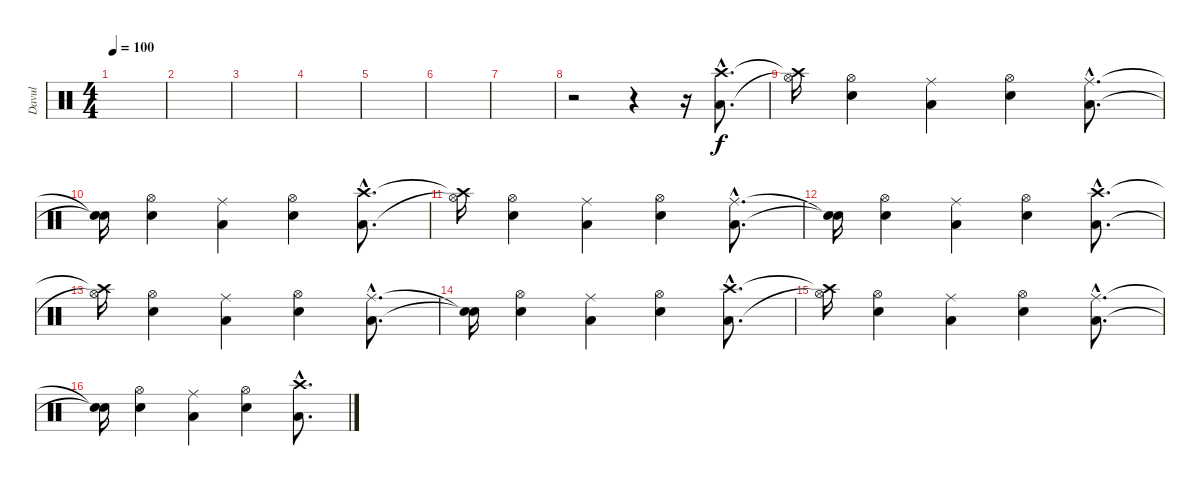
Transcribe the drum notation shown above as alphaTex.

\track ("Davul" "Davul") {instrument percussion}
\staff {score}
\articulation defaults
\ts (4 4)
\tempo 100
\clef neutral
\ks c
|
|
|
|
|
|
|
r.2 r.4 r.16 ("Crash high (hit)"{hac} "Low Floor Tom (hit)"{hac}).8{d} |
("Crash high (hit)"{t} "Hi-Hat (open)"{t}).16 ("Hi-Hat (open)" "Electric Snare (hit)").4 ("Ride (middle)" "Low Floor Tom (hit)").4 ("Hi-Hat (open)" "Electric Snare (hit)").4 ("Ride (middle)"{hac} "Low Floor Tom (hit)"{hac}).8{d} |
("Snare (hit)"{t} "Snare (hit)"{t}).16 ("Hi-Hat (open)" "Electric Snare (hit)").4 ("Ride (middle)" "Low Floor Tom (hit)").4 ("Hi-Hat (open)" "Electric Snare (hit)").4 ("Crash high (hit)"{hac} "Low Floor Tom (hit)"{hac}).8{d} |
("Crash high (hit)"{t} "Hi-Hat (open)"{t}).16 ("Hi-Hat (open)" "Electric Snare (hit)").4 ("Ride (middle)" "Low Floor Tom (hit)").4 ("Hi-Hat (open)" "Electric Snare (hit)").4 ("Ride (middle)"{hac} "Low Floor Tom (hit)"{hac}).8{d} |
("Snare (hit)"{t} "Snare (hit)"{t}).16 ("Hi-Hat (open)" "Electric Snare (hit)").4 ("Ride (middle)" "Low Floor Tom (hit)").4 ("Hi-Hat (open)" "Electric Snare (hit)").4 ("Crash high (hit)"{hac} "Low Floor Tom (hit)"{hac}).8{d} |
("Crash high (hit)"{t} "Hi-Hat (open)"{t}).16 ("Hi-Hat (open)" "Electric Snare (hit)").4 ("Ride (middle)" "Low Floor Tom (hit)").4 ("Hi-Hat (open)" "Electric Snare (hit)").4 ("Ride (middle)"{hac} "Low Floor Tom (hit)"{hac}).8{d} |
("Snare (hit)"{t} "Snare (hit)"{t}).16 ("Hi-Hat (open)" "Electric Snare (hit)").4 ("Ride (middle)" "Low Floor Tom (hit)").4 ("Hi-Hat (open)" "Electric Snare (hit)").4 ("Crash high (hit)"{hac} "Low Floor Tom (hit)"{hac}).8{d} |
("Crash high (hit)"{t} "Hi-Hat (open)"{t}).16 ("Hi-Hat (open)" "Electric Snare (hit)").4 ("Ride (middle)" "Low Floor Tom (hit)").4 ("Hi-Hat (open)" "Electric Snare (hit)").4 ("Ride (middle)"{hac} "Low Floor Tom (hit)"{hac}).8{d} |
("Snare (hit)"{t} "Snare (hit)"{t}).16 ("Hi-Hat (open)" "Electric Snare (hit)").4 ("Ride (middle)" "Low Floor Tom (hit)").4 ("Hi-Hat (open)" "Electric Snare (hit)").4 ("Crash high (hit)"{hac} "Low Floor Tom (hit)"{hac}).8{d}
